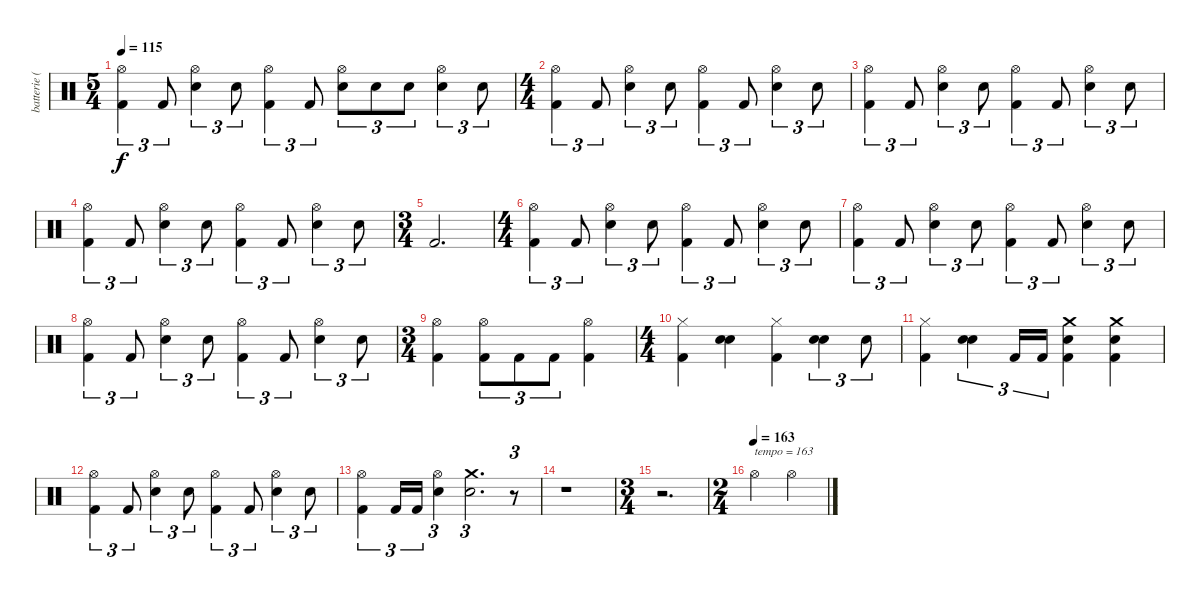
\track ("batterie ( Carlos ) " "batterie (") {instrument percussion}
\staff {score}
\articulation defaults
\ts (5 4)
\tempo 115
\clef neutral
\ks c
("Hi-Hat (open)" "Kick (hit) 2").4{tu (3 2) dy f} "Kick (hit) 2".8{tu (3 2)} ("Hi-Hat (open)" "Electric Snare (hit)").4{tu (3 2)} "Electric Snare (hit)".8{tu (3 2)} ("Hi-Hat (open)" "Kick (hit) 2").4{tu (3 2)} "Kick (hit) 2".8{tu (3 2)} ("Hi-Hat (open)" "Electric Snare (hit)").8{tu (3 2)} "Electric Snare (hit)".8{tu (3 2)} "Electric Snare (hit)".8{tu (3 2)} ("Hi-Hat (open)" "Electric Snare (hit)").4{tu (3 2)} "Electric Snare (hit)".8{tu (3 2)} |
\ts (4 4)
("Hi-Hat (open)" "Kick (hit) 2").4{tu (3 2)} "Kick (hit) 2".8{tu (3 2)} ("Hi-Hat (open)" "Electric Snare (hit)").4{tu (3 2)} "Electric Snare (hit)".8{tu (3 2)} ("Hi-Hat (open)" "Kick (hit) 2").4{tu (3 2)} "Kick (hit) 2".8{tu (3 2)} ("Hi-Hat (open)" "Electric Snare (hit)").4{tu (3 2)} "Electric Snare (hit)".8{tu (3 2)} |
("Hi-Hat (open)" "Kick (hit) 2").4{tu (3 2)} "Kick (hit) 2".8{tu (3 2)} ("Hi-Hat (open)" "Electric Snare (hit)").4{tu (3 2)} "Electric Snare (hit)".8{tu (3 2)} ("Hi-Hat (open)" "Kick (hit) 2").4{tu (3 2)} "Kick (hit) 2".8{tu (3 2)} ("Hi-Hat (open)" "Electric Snare (hit)").4{tu (3 2)} "Electric Snare (hit)".8{tu (3 2)} |
("Hi-Hat (open)" "Kick (hit) 2").4{tu (3 2)} "Kick (hit) 2".8{tu (3 2)} ("Hi-Hat (open)" "Electric Snare (hit)").4{tu (3 2)} "Electric Snare (hit)".8{tu (3 2)} ("Hi-Hat (open)" "Kick (hit) 2").4{tu (3 2)} "Kick (hit) 2".8{tu (3 2)} ("Hi-Hat (open)" "Electric Snare (hit)").4{tu (3 2)} "Electric Snare (hit)".8{tu (3 2)} |
\ts (3 4)
"Kick (hit) 2".2{d} |
\ts (4 4)
("Hi-Hat (open)" "Kick (hit) 2").4{tu (3 2)} "Kick (hit) 2".8{tu (3 2)} ("Hi-Hat (open)" "Electric Snare (hit)").4{tu (3 2)} "Electric Snare (hit)".8{tu (3 2)} ("Hi-Hat (open)" "Kick (hit) 2").4{tu (3 2)} "Kick (hit) 2".8{tu (3 2)} ("Hi-Hat (open)" "Electric Snare (hit)").4{tu (3 2)} "Electric Snare (hit)".8{tu (3 2)} |
("Hi-Hat (open)" "Kick (hit) 2").4{tu (3 2)} "Kick (hit) 2".8{tu (3 2)} ("Hi-Hat (open)" "Electric Snare (hit)").4{tu (3 2)} "Electric Snare (hit)".8{tu (3 2)} ("Hi-Hat (open)" "Kick (hit) 2").4{tu (3 2)} "Kick (hit) 2".8{tu (3 2)} ("Hi-Hat (open)" "Electric Snare (hit)").4{tu (3 2)} "Electric Snare (hit)".8{tu (3 2)} |
("Hi-Hat (open)" "Kick (hit) 2").4{tu (3 2)} "Kick (hit) 2".8{tu (3 2)} ("Hi-Hat (open)" "Electric Snare (hit)").4{tu (3 2)} "Electric Snare (hit)".8{tu (3 2)} ("Hi-Hat (open)" "Kick (hit) 2").4{tu (3 2)} "Kick (hit) 2".8{tu (3 2)} ("Hi-Hat (open)" "Electric Snare (hit)").4{tu (3 2)} "Electric Snare (hit)".8{tu (3 2)} |
\ts (3 4)
("Hi-Hat (open)" "Kick (hit) 2").4 ("Hi-Hat (open)" "Kick (hit) 2").8{tu (3 2)} "Kick (hit) 2".8{tu (3 2)} "Kick (hit) 2".8{tu (3 2)} ("Hi-Hat (open)" "Kick (hit) 2").4 |
\ts (4 4)
("Hi-Hat (closed)" "Kick (hit) 2").4 ("Snare (hit) 2" "Electric Snare (hit)").4 ("Hi-Hat (closed)" "Kick (hit) 2").4 ("Snare (hit) 2" "Electric Snare (hit)").4{tu (3 2)} "Electric Snare (hit)".8{tu (3 2)} |
("Hi-Hat (closed)" "Kick (hit) 2").4 ("Snare (hit) 2" "Electric Snare (hit)").4{tu (3 2)} "Kick (hit) 2".16{tu (3 2)} "Kick (hit) 2".16{tu (3 2)} ("Crash medium (hit)" "Electric Snare (hit)" "Kick (hit) 2").4 ("Crash medium (hit)" "Electric Snare (hit)" "Kick (hit) 2").4 |
("Hi-Hat (open)" "Kick (hit) 2").4{tu (3 2)} "Kick (hit) 2".8{tu (3 2)} ("Hi-Hat (open)" "Electric Snare (hit)").4{tu (3 2)} "Electric Snare (hit)".8{tu (3 2)} ("Hi-Hat (open)" "Kick (hit) 2").4{tu (3 2)} "Kick (hit) 2".8{tu (3 2)} ("Hi-Hat (open)" "Electric Snare (hit)").4{tu (3 2)} "Electric Snare (hit)".8{tu (3 2)} |
("Hi-Hat (open)" "Kick (hit) 2").4{tu (3 2)} "Kick (hit) 2".16{tu (3 2)} "Kick (hit) 2".16{tu (3 2)} ("Hi-Hat (open)" "Electric Snare (hit)").4{tu (3 2)} ("Crash medium (hit)" "Electric Snare (hit)").2{d tu (3 2)} r.8{tu (3 2)} |
r.1 |
\ts (3 4)
r.2{d} |
\ts (2 4)
\tempo (163)
"Hi-Hat (open)".4{txt "tempo = 163"} "Hi-Hat (open)".4
